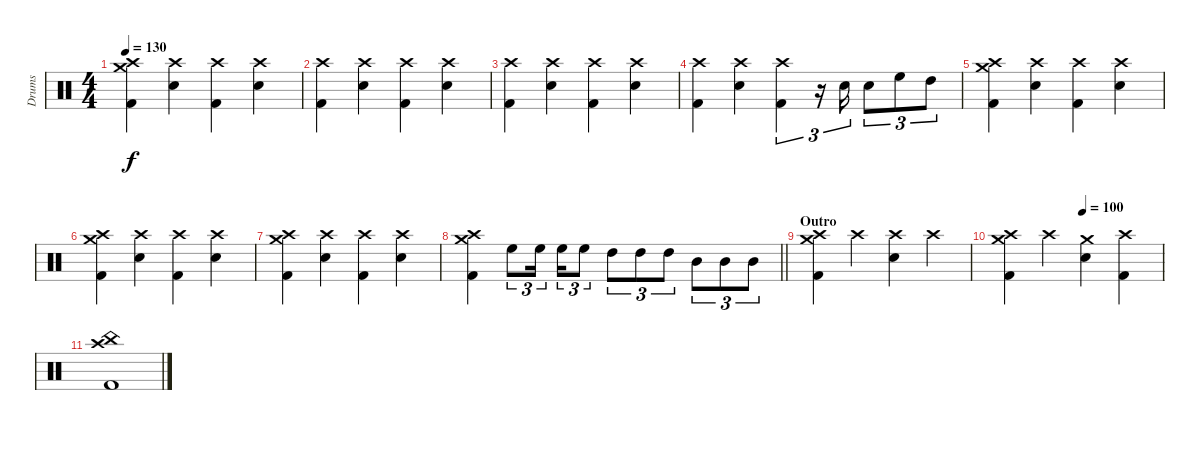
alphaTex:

\track ("Drums" "Drums") {instrument percussion}
\staff {score}
\articulation defaults
\ts (4 4)
\tempo 130
\clef neutral
\ks c
("Crash medium (hit)" "Crash high (hit)" "Kick (hit) 2").4{dy f} ("Crash high (hit)" "Electric Snare (hit)").4 ("Crash high (hit)" "Kick (hit) 2").4 ("Crash high (hit)" "Electric Snare (hit)").4 |
("Crash high (hit)" "Kick (hit) 2").4 ("Crash high (hit)" "Electric Snare (hit)").4 ("Crash high (hit)" "Kick (hit) 2").4 ("Crash high (hit)" "Electric Snare (hit)").4 |
("Crash high (hit)" "Kick (hit) 2").4 ("Crash high (hit)" "Electric Snare (hit)").4 ("Crash high (hit)" "Kick (hit) 2").4 ("Crash high (hit)" "Electric Snare (hit)").4 |
("Crash high (hit)" "Kick (hit) 2").4 ("Crash high (hit)" "Electric Snare (hit)").4 ("Crash high (hit)" "Kick (hit) 2").4{tu (3 2)} r.16{tu (3 2)} "Electric Snare (hit)".16{tu (3 2)} "Electric Snare (hit)".8{tu (3 2)} "High Floor Tom (hit)".8{tu (3 2)} "High Tom (hit)".8{tu (3 2)} |
("Crash medium (hit)" "Crash high (hit)" "Kick (hit) 2").4 ("Crash high (hit)" "Electric Snare (hit)").4 ("Crash high (hit)" "Kick (hit) 2").4 ("Crash high (hit)" "Electric Snare (hit)").4 |
("Crash medium (hit)" "Crash high (hit)" "Kick (hit) 2").4 ("Crash high (hit)" "Electric Snare (hit)").4 ("Crash high (hit)" "Kick (hit) 2").4 ("Crash high (hit)" "Electric Snare (hit)").4 |
("Crash medium (hit)" "Crash high (hit)" "Kick (hit) 2").4 ("Crash high (hit)" "Electric Snare (hit)").4 ("Crash high (hit)" "Kick (hit) 2").4 ("Crash high (hit)" "Electric Snare (hit)").4 |
\barLineRight lightlight
("Crash medium (hit)" "Crash high (hit)" "Kick (hit) 2").4 "High Floor Tom (hit)".8{tu (3 2)} "High Floor Tom (hit)".16{tu (3 2) beam splitsecondary} "High Floor Tom (hit)".16{tu (3 2)} "High Floor Tom (hit)".8{tu (3 2)} "High Tom (hit)".8{tu (3 2)} "High Tom (hit)".8{tu (3 2)} "High Tom (hit)".8{tu (3 2)} "Mid Tom (hit)".8{tu (3 2)} "Mid Tom (hit)".8{tu (3 2)} "Mid Tom (hit)".8{tu (3 2)} |
\section ("" "Outro")
("Crash medium (hit)" "Crash high (hit)" "Kick (hit) 2").4 "Crash high (hit)".4 ("Crash high (hit)" "Electric Snare (hit)").4 "Crash high (hit)".4 |
\tempo (100 0.5)
("Crash medium (hit)" "Crash high (hit)" "Kick (hit) 2").4 "Crash high (hit)".4 ("Crash medium (hit)" "Electric Snare (hit)").4 ("Crash high (hit)" "Kick (hit) 2").4 |
("China (hit)" "Crash high (hit)" "Kick (hit) 2").1
